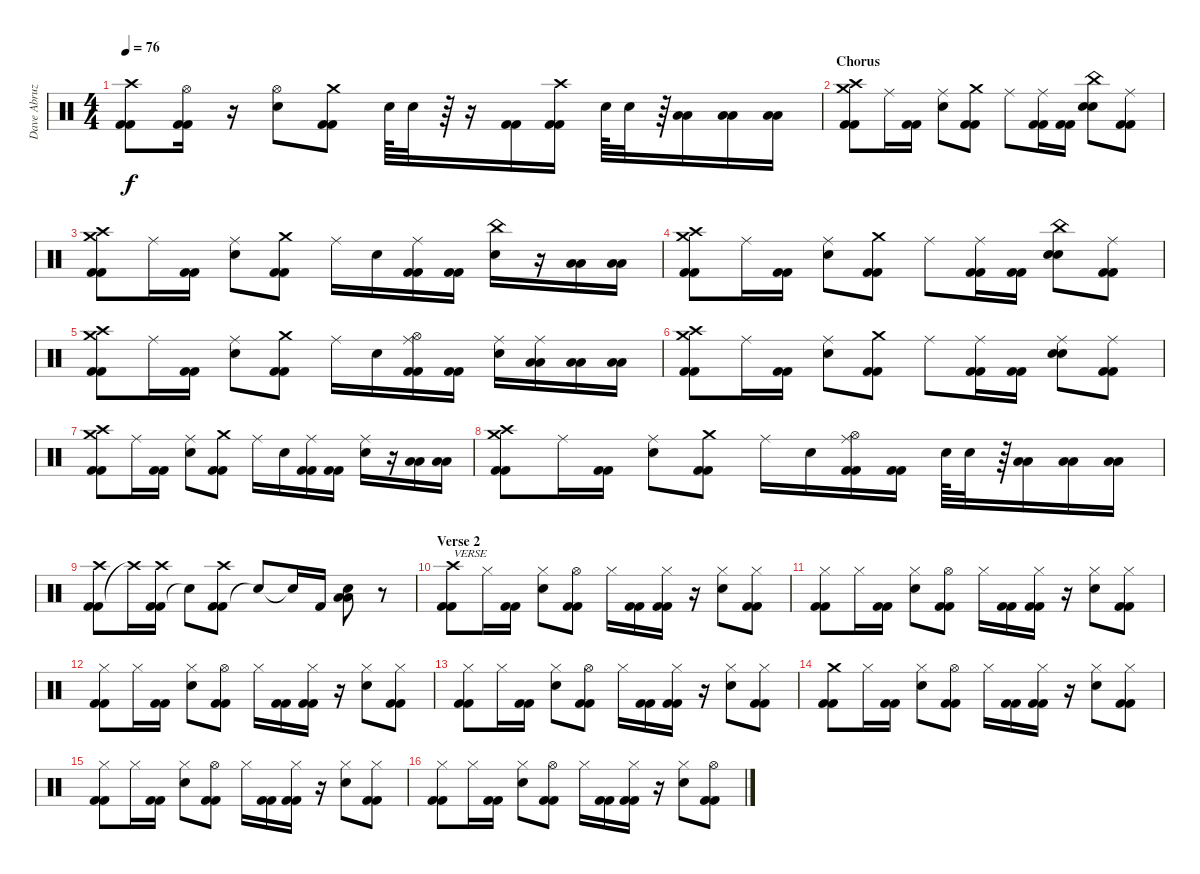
\track ("Dave Abruzzese" "Dave Abruz") {instrument percussion}
\staff {score}
\articulation defaults
\ts (4 4)
\tempo 76
\clef neutral
\ks c
("Kick (hit) 2" "Kick (hit) 2" "Crash high (hit)").8{dy f} ("Kick (hit) 2" "Kick (hit) 2" "Hi-Hat (open)").16 r.16 ("Electric Snare (hit)" "Hi-Hat (open)").8 ("Kick (hit) 2" "Kick (hit) 2" "Crash medium (hit)").8 "Electric Snare (hit)".64 "Electric Snare (hit)".32 r.64 r.16 ("Kick (hit) 2" "Kick (hit) 2").16 ("Kick (hit) 2" "Kick (hit) 2" "Crash high (hit)").16 "Electric Snare (hit)".64 "Electric Snare (hit)".32 r.64 ("Low Tom (hit)" "Low Tom (hit)").16 ("Low Tom (hit)" "Low Tom (hit)").16 ("Low Tom (hit)" "Low Tom (hit)").16 |
\section ("" "Chorus")
("Crash medium (hit)" "Kick (hit) 2" "Kick (hit) 2" "Crash high (hit)").8 "Ride (middle)".16 ("Kick (hit) 2" "Kick (hit) 2").16 ("Electric Snare (hit)" "Ride (middle)").8 ("Kick (hit) 2" "Kick (hit) 2" "Crash medium (hit)").8 "Ride (middle)".8 ("Kick (hit) 2" "Kick (hit) 2" "Ride (middle)").16 ("Kick (hit) 2" "Kick (hit) 2").16 ("Electric Snare (hit)" "Electric Snare (hit)" "China (hit)").8 ("Kick (hit) 2" "Kick (hit) 2" "Ride (middle)").8 |
("Crash medium (hit)" "Kick (hit) 2" "Kick (hit) 2" "Crash high (hit)").8 "Ride (middle)".16 ("Kick (hit) 2" "Kick (hit) 2").16 ("Electric Snare (hit)" "Ride (middle)").8 ("Kick (hit) 2" "Kick (hit) 2" "Crash medium (hit)").8 "Ride (middle)".16 "Electric Snare (hit)".16 ("Kick (hit) 2" "Kick (hit) 2" "Ride (middle)").16 ("Kick (hit) 2" "Kick (hit) 2").16 ("Electric Snare (hit)" "China (hit)").16 r.16 ("Low Tom (hit)" "Low Tom (hit)").16 ("Low Tom (hit)" "Low Tom (hit)").16 |
("Crash medium (hit)" "Kick (hit) 2" "Kick (hit) 2" "Crash high (hit)").8 "Ride (middle)".16 ("Kick (hit) 2" "Kick (hit) 2").16 ("Electric Snare (hit)" "Ride (middle)").8 ("Kick (hit) 2" "Kick (hit) 2" "Crash medium (hit)").8 "Ride (middle)".8 ("Kick (hit) 2" "Kick (hit) 2" "Ride (middle)").16 ("Kick (hit) 2" "Kick (hit) 2").16 ("Electric Snare (hit)" "Electric Snare (hit)" "China (hit)").8 ("Kick (hit) 2" "Kick (hit) 2" "Ride (middle)").8 |
("Crash medium (hit)" "Kick (hit) 2" "Kick (hit) 2" "Crash high (hit)").8 "Ride (middle)".16 ("Kick (hit) 2" "Kick (hit) 2").16 ("Electric Snare (hit)" "Ride (middle)").8 ("Kick (hit) 2" "Kick (hit) 2" "Crash medium (hit)").8 "Ride (middle)".16 "Electric Snare (hit)".16 ("Hi-Hat (open)" "Kick (hit) 2" "Kick (hit) 2" "Ride (middle)").16 ("Kick (hit) 2" "Kick (hit) 2").16 ("Electric Snare (hit)" "Ride (middle)").16 ("Low Tom (hit)" "Low Tom (hit)" "Ride (middle)").16 ("Low Tom (hit)" "Low Tom (hit)").16 ("Low Tom (hit)" "Low Tom (hit)").16 |
("Crash medium (hit)" "Kick (hit) 2" "Kick (hit) 2" "Crash high (hit)").8 "Ride (middle)".16 ("Kick (hit) 2" "Kick (hit) 2").16 ("Electric Snare (hit)" "Ride (middle)").8 ("Kick (hit) 2" "Kick (hit) 2" "Crash medium (hit)").8 "Ride (middle)".8 ("Kick (hit) 2" "Kick (hit) 2" "Ride (middle)").16 ("Kick (hit) 2" "Kick (hit) 2").16 ("Electric Snare (hit)" "Electric Snare (hit)" "Ride (middle)").8 ("Kick (hit) 2" "Kick (hit) 2" "Ride (middle)").8 |
("Crash medium (hit)" "Kick (hit) 2" "Kick (hit) 2" "Crash high (hit)").8 "Ride (middle)".16 ("Kick (hit) 2" "Kick (hit) 2").16 ("Electric Snare (hit)" "Ride (middle)").8 ("Kick (hit) 2" "Kick (hit) 2" "Crash medium (hit)").8 "Ride (middle)".16 "Electric Snare (hit)".16 ("Kick (hit) 2" "Kick (hit) 2" "Ride (middle)").16 ("Kick (hit) 2" "Kick (hit) 2").16 ("Electric Snare (hit)" "Ride (middle)").16 r.16 ("Low Tom (hit)" "Low Tom (hit)").16 ("Low Tom (hit)" "Low Tom (hit)").16 |
("Crash medium (hit)" "Kick (hit) 2" "Kick (hit) 2" "Crash high (hit)").8 "Ride (middle)".16 ("Kick (hit) 2" "Kick (hit) 2").16 ("Electric Snare (hit)" "Ride (middle)").8 ("Kick (hit) 2" "Kick (hit) 2" "Crash medium (hit)").8 "Ride (middle)".16 "Electric Snare (hit)".16 ("Hi-Hat (open)" "Kick (hit) 2" "Kick (hit) 2" "Ride (middle)").16 ("Kick (hit) 2" "Kick (hit) 2").16 "Electric Snare (hit)".64 "Electric Snare (hit)".32 r.64 ("Low Tom (hit)" "Low Tom (hit)").16 ("Low Tom (hit)" "Low Tom (hit)").16 ("Low Tom (hit)" "Low Tom (hit)").16 |
("Kick (hit) 2" "Kick (hit) 2" "Crash high (hit)").8 "Crash high (hit)"{t}.16 ("Kick (hit) 2" "Kick (hit) 2" "Crash high (hit)").16 "Snare (hit)"{t}.8 ("Kick (hit) 2" "Kick (hit) 2" "Crash high (hit)").8 "Snare (hit)"{t}.8 "Snare (hit)"{t}.16 "Kick (hit) 2".16 ("Low Tom (hit)" "Low Tom (hit)" "Electric Snare (hit)").8 r.8 |
\section ("" "Verse 2")
("Kick (hit) 2" "Kick (hit) 2" "Crash high (hit)").8{txt "VERSE"} "Hi-Hat (closed)".16 ("Kick (hit) 2" "Kick (hit) 2").16 ("Electric Snare (hit)" "Hi-Hat (closed)").8 ("Kick (hit) 2" "Kick (hit) 2" "Hi-Hat (open)").8 "Hi-Hat (closed)".16 ("Kick (hit) 2" "Kick (hit) 2").16 ("Kick (hit) 2" "Kick (hit) 2" "Hi-Hat (closed)").16 r.16 ("Electric Snare (hit)" "Hi-Hat (closed)").8 ("Kick (hit) 2" "Kick (hit) 2" "Hi-Hat (closed)").8 |
("Kick (hit) 2" "Kick (hit) 2" "Hi-Hat (closed)").8 "Hi-Hat (closed)".16 ("Kick (hit) 2" "Kick (hit) 2").16 ("Electric Snare (hit)" "Hi-Hat (closed)").8 ("Kick (hit) 2" "Kick (hit) 2" "Hi-Hat (open)").8 "Hi-Hat (closed)".16 ("Kick (hit) 2" "Kick (hit) 2").16 ("Kick (hit) 2" "Kick (hit) 2" "Hi-Hat (closed)").16 r.16 ("Electric Snare (hit)" "Hi-Hat (closed)").8 ("Kick (hit) 2" "Kick (hit) 2" "Hi-Hat (closed)").8 |
("Kick (hit) 2" "Kick (hit) 2" "Hi-Hat (closed)").8 "Hi-Hat (closed)".16 ("Kick (hit) 2" "Kick (hit) 2").16 ("Electric Snare (hit)" "Hi-Hat (closed)").8 ("Kick (hit) 2" "Kick (hit) 2" "Hi-Hat (open)").8 "Hi-Hat (closed)".16 ("Kick (hit) 2" "Kick (hit) 2").16 ("Kick (hit) 2" "Kick (hit) 2" "Hi-Hat (closed)").16 r.16 ("Electric Snare (hit)" "Hi-Hat (closed)").8 ("Kick (hit) 2" "Kick (hit) 2" "Hi-Hat (closed)").8 |
("Kick (hit) 2" "Kick (hit) 2" "Hi-Hat (closed)").8 "Hi-Hat (closed)".16 ("Kick (hit) 2" "Kick (hit) 2").16 ("Electric Snare (hit)" "Hi-Hat (closed)").8 ("Kick (hit) 2" "Kick (hit) 2" "Hi-Hat (open)").8 "Hi-Hat (closed)".16 ("Kick (hit) 2" "Kick (hit) 2").16 ("Kick (hit) 2" "Kick (hit) 2" "Hi-Hat (closed)").16 r.16 ("Electric Snare (hit)" "Hi-Hat (closed)").8 ("Kick (hit) 2" "Kick (hit) 2" "Hi-Hat (closed)").8 |
("Kick (hit) 2" "Kick (hit) 2" "Crash medium (hit)").8 "Hi-Hat (closed)".16 ("Kick (hit) 2" "Kick (hit) 2").16 ("Electric Snare (hit)" "Hi-Hat (closed)").8 ("Kick (hit) 2" "Kick (hit) 2" "Hi-Hat (open)").8 "Hi-Hat (closed)".16 ("Kick (hit) 2" "Kick (hit) 2").16 ("Kick (hit) 2" "Kick (hit) 2" "Hi-Hat (closed)").16 r.16 ("Electric Snare (hit)" "Hi-Hat (closed)").8 ("Kick (hit) 2" "Kick (hit) 2" "Hi-Hat (closed)").8 |
("Kick (hit) 2" "Kick (hit) 2" "Hi-Hat (closed)").8 "Hi-Hat (closed)".16 ("Kick (hit) 2" "Kick (hit) 2").16 ("Electric Snare (hit)" "Hi-Hat (closed)").8 ("Kick (hit) 2" "Kick (hit) 2" "Hi-Hat (open)").8 "Hi-Hat (closed)".16 ("Kick (hit) 2" "Kick (hit) 2").16 ("Kick (hit) 2" "Kick (hit) 2" "Hi-Hat (closed)").16 r.16 ("Electric Snare (hit)" "Hi-Hat (closed)").8 ("Kick (hit) 2" "Kick (hit) 2" "Hi-Hat (closed)").8 |
("Kick (hit) 2" "Kick (hit) 2" "Hi-Hat (closed)").8 "Hi-Hat (closed)".16 ("Kick (hit) 2" "Kick (hit) 2").16 ("Electric Snare (hit)" "Hi-Hat (closed)").8 ("Kick (hit) 2" "Kick (hit) 2" "Hi-Hat (open)").8 "Hi-Hat (closed)".16 ("Kick (hit) 2" "Kick (hit) 2").16 ("Kick (hit) 2" "Kick (hit) 2" "Hi-Hat (closed)").16 r.16 ("Electric Snare (hit)" "Hi-Hat (closed)").8 ("Kick (hit) 2" "Kick (hit) 2" "Hi-Hat (open)").8
